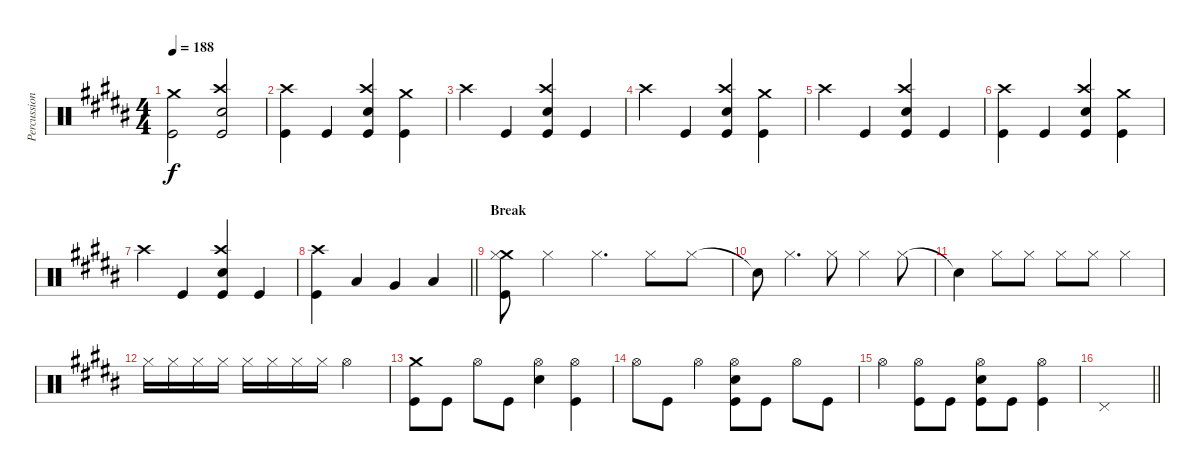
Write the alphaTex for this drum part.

\track ("Percussion" "Percussion") {instrument percussion}
\staff {score}
\articulation defaults
\ts (4 4)
\tempo 188
\clef neutral
\ks b
("Crash medium (hit)" "Kick (hit)").2{dy f} ("Crash high (hit)" "Electric Snare (hit)" "Kick (hit)").2 |
("Crash high (hit)" "Kick (hit)").4 "Kick (hit)".4 ("Crash high (hit)" "Electric Snare (hit)" "Kick (hit)").4 ("Crash medium (hit)" "Kick (hit)").4 |
"Crash high (hit)".4 "Kick (hit)".4 ("Crash high (hit)" "Electric Snare (hit)" "Kick (hit)").4 "Kick (hit)".4 |
"Crash high (hit)".4 "Kick (hit)".4 ("Crash high (hit)" "Electric Snare (hit)" "Kick (hit)").4 ("Crash medium (hit)" "Kick (hit)").4 |
"Crash high (hit)".4 "Kick (hit)".4 ("Crash high (hit)" "Electric Snare (hit)" "Kick (hit)").4 "Kick (hit)".4 |
("Crash high (hit)" "Kick (hit)").4 "Kick (hit)".4 ("Crash high (hit)" "Electric Snare (hit)" "Kick (hit)").4 ("Crash medium (hit)" "Kick (hit)").4 |
"Crash high (hit)".4 "Kick (hit)".4 ("Crash high (hit)" "Electric Snare (hit)" "Kick (hit)").4 "Kick (hit)".4 |
\barLineRight lightlight
("Crash high (hit)" "Kick (hit)").4 "Low Tom (hit)".4 "Very Low Tom (hit)".4 "Low Floor Tom (hit)".4 |
\section ("" "Break")
("Crash medium (hit)" "Hi-Hat (closed)" "Kick (hit)").8 "Hi-Hat (closed)".4 "Hi-Hat (closed)".4{d} "Hi-Hat (closed)".8 "Hi-Hat (closed)".8 |
"Snare (hit)"{t}.8 "Hi-Hat (closed)".4{d} "Hi-Hat (closed)".8 "Hi-Hat (closed)".4 "Hi-Hat (closed)".8 |
"Snare (hit)"{t}.4 "Hi-Hat (closed)".8 "Hi-Hat (closed)".8 "Hi-Hat (closed)".8 "Hi-Hat (closed)".8 "Hi-Hat (closed)".4 |
"Hi-Hat (closed)".16 "Hi-Hat (closed)".16 "Hi-Hat (closed)".16 "Hi-Hat (closed)".16 "Hi-Hat (closed)".16 "Hi-Hat (closed)".16 "Hi-Hat (closed)".16 "Hi-Hat (closed)".16 "Hi-Hat (open)".2 |
("Crash medium (hit)" "Kick (hit)").8 "Kick (hit)".8 "Hi-Hat (open)".8 "Kick (hit)".8 ("Hi-Hat (open)" "Electric Snare (hit)").4 ("Hi-Hat (open)" "Kick (hit)").4 |
"Hi-Hat (open)".8 "Kick (hit)".8 "Hi-Hat (open)".4 ("Hi-Hat (open)" "Electric Snare (hit)" "Kick (hit)").8 "Kick (hit)".8 "Hi-Hat (open)".8 "Kick (hit)".8 |
"Hi-Hat (open)".4 ("Hi-Hat (open)" "Kick (hit)").8 "Kick (hit)".8 ("Hi-Hat (open)" "Electric Snare (hit)" "Kick (hit)").8 "Kick (hit)".8 ("Hi-Hat (open)" "Kick (hit)").4 |
\barLineRight lightlight "Pedal Hi-Hat (hit)".1
